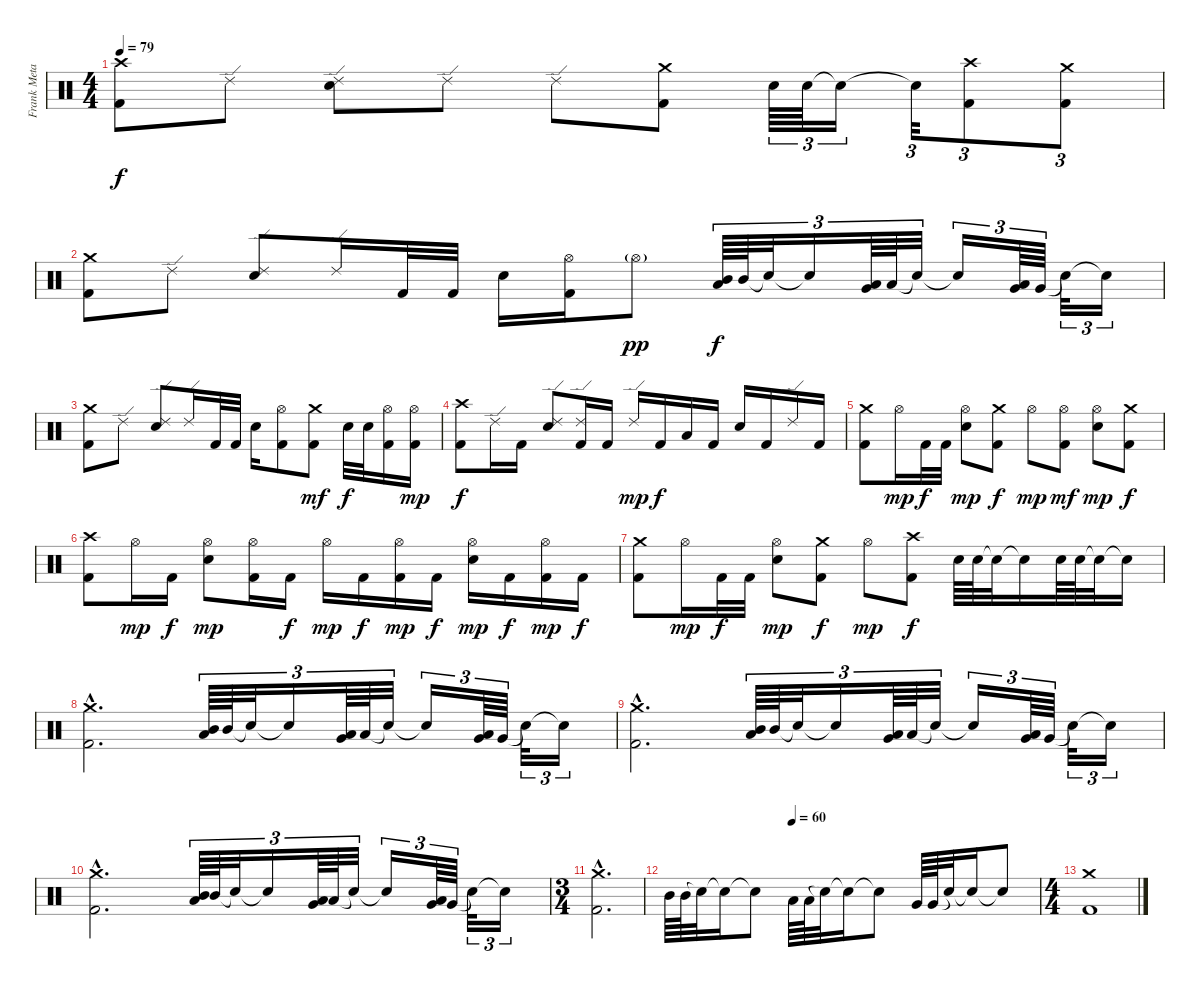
\track ("Frank Metayer" "Frank Meta") {instrument percussion}
\staff {score}
\articulation defaults
\ts (4 4)
\tempo 79
\clef neutral
\ks c
("Kick (hit) 2" "Crash high (hit)").8{dy f} "Ride (edge) 2".8 ("Ride (edge) 2" "Snare (hit) 2").8 "Ride (edge) 2".8 "Ride (edge) 2".8 ("Kick (hit) 2" "Crash medium (hit)").8 "Snare (hit) 2".64{tu (3 2)} "Snare (hit) 2".64{tu (3 2)} "Snare (hit)"{t}.16{tu (3 2)} "Snare (hit)"{t}.32{tu (3 2)} ("Kick (hit) 2" "Crash high (hit)").8{tu (3 2)} ("Kick (hit) 2" "Crash medium (hit)").8{tu (3 2)} |
("Kick (hit) 2" "Crash medium (hit)").8 "Ride (edge) 2".8 ("Ride (edge) 2" "Snare (hit) 2").8 "Ride (edge) 2".16 "Kick (hit) 2".32 "Kick (hit) 2".32 "Snare (hit) 2".16 ("Kick (hit) 2" "Hi-Hat (open)").16 "Hi-Hat (open)"{g}.8{dy pp} ("Mid Tom (hit)" "Low Tom (hit)").64{tu (3 2) dy f} "Mid Tom (hit)".64{tu (3 2)} "Snare (hit)"{t}.32{tu (3 2)} "Snare (hit)"{t}.16{tu (3 2)} ("Low Tom (hit)" "Very Low Tom (hit)").64{tu (3 2)} "Low Tom (hit)".64{tu (3 2)} "Snare (hit)"{t}.32{tu (3 2)} "Snare (hit)"{t}.16{tu (3 2)} ("Very Low Tom (hit)" "Low Floor Tom (hit)").64{tu (3 2)} "Very Low Tom (hit)".64{tu (3 2)} "Snare (hit)"{t}.32{tu (3 2)} "Snare (hit)"{t}.16{tu (3 2)} |
("Kick (hit) 2" "Crash medium (hit)").8 "Ride (edge) 2".8 ("Ride (edge) 2" "Snare (hit) 2").8 "Ride (edge) 2".16 "Kick (hit) 2".32 "Kick (hit) 2".32 "Snare (hit) 2".16 ("Kick (hit) 2" "Hi-Hat (open)").8 ("Kick (hit) 2" "Crash medium (hit)").8{dy mf} "Snare (hit) 2".32{dy f} "Snare (hit) 2".32 ("Kick (hit) 2" "Hi-Hat (open)").16 ("Kick (hit) 2" "Hi-Hat (open)").16{dy mp} |
("Kick (hit) 2" "Crash high (hit)").8{dy f} "Ride (edge) 2".16 "Kick (hit) 2".16 ("Ride (edge) 2" "Snare (hit) 2").8 ("Kick (hit) 2" "Ride (edge) 2").16 "Kick (hit) 2".16 "Ride (edge) 2".16{dy mp} "Kick (hit) 2".16{dy f} "Low Tom (hit)".16 "Kick (hit) 2".16 "Snare (hit) 2".16 "Kick (hit) 2".16 "Ride (edge) 2".16 "Kick (hit) 2".16 |
("Kick (hit) 2" "Crash medium (hit)").8 "Hi-Hat (open)".16{dy mp} "Kick (hit) 2".32{dy f} "Kick (hit) 2".32 ("Hi-Hat (open)" "Snare (hit) 2").8{dy mp} ("Kick (hit) 2" "Crash medium (hit)").8{dy f} "Hi-Hat (open)".8{dy mp} ("Kick (hit) 2" "Hi-Hat (open)").8{dy mf} ("Hi-Hat (open)" "Snare (hit) 2").8{dy mp} ("Kick (hit) 2" "Crash medium (hit)").8{dy f} |
("Kick (hit) 2" "Crash high (hit)").8 "Hi-Hat (open)".16{dy mp} "Kick (hit) 2".16{dy f} ("Hi-Hat (open)" "Snare (hit) 2").8{dy mp} ("Kick (hit) 2" "Hi-Hat (open)").16 "Kick (hit) 2".16{dy f} "Hi-Hat (open)".16{dy mp} "Kick (hit) 2".16{dy f} ("Kick (hit) 2" "Hi-Hat (open)").16{dy mp} "Kick (hit) 2".16{dy f} ("Hi-Hat (open)" "Snare (hit) 2").16{dy mp} "Kick (hit) 2".16{dy f} ("Kick (hit) 2" "Hi-Hat (open)").16{dy mp} "Kick (hit) 2".16{dy f} |
("Kick (hit) 2" "Crash medium (hit)").8 "Hi-Hat (open)".16{dy mp} "Kick (hit) 2".32{dy f} "Kick (hit) 2".32 ("Hi-Hat (open)" "Snare (hit) 2").8{dy mp} ("Kick (hit) 2" "Crash medium (hit)").8{dy f} "Hi-Hat (open)".8{dy mp} ("Kick (hit) 2" "Crash high (hit)").8{dy f} "Snare (hit) 2".64 "Snare (hit) 2".64 "Snare (hit)"{t}.32 "Snare (hit)"{t}.16 "Snare (hit) 2".64 "Snare (hit) 2".64 "Snare (hit) 2"{t}.32 "Snare (hit) 2"{t}.16 |
("Kick (hit) 2"{hac} "Crash medium (hit)"{hac}).2{d} ("Mid Tom (hit)" "Low Tom (hit)").64{tu (3 2)} "Mid Tom (hit)".64{tu (3 2)} "Snare (hit)"{t}.32{tu (3 2)} "Snare (hit)"{t}.16{tu (3 2)} ("Low Tom (hit)" "Very Low Tom (hit)").64{tu (3 2)} "Low Tom (hit)".64{tu (3 2)} "Snare (hit)"{t}.32{tu (3 2)} "Snare (hit)"{t}.16{tu (3 2)} ("Very Low Tom (hit)" "Low Floor Tom (hit)").64{tu (3 2)} "Very Low Tom (hit)".64{tu (3 2)} "Snare (hit)"{t}.32{tu (3 2)} "Snare (hit)"{t}.16{tu (3 2)} |
("Kick (hit) 2"{hac} "Crash medium (hit)"{hac}).2{d} ("Mid Tom (hit)" "Low Tom (hit)").64{tu (3 2)} "Mid Tom (hit)".64{tu (3 2)} "Snare (hit)"{t}.32{tu (3 2)} "Snare (hit)"{t}.16{tu (3 2)} ("Low Tom (hit)" "Very Low Tom (hit)").64{tu (3 2)} "Low Tom (hit)".64{tu (3 2)} "Snare (hit)"{t}.32{tu (3 2)} "Snare (hit)"{t}.16{tu (3 2)} ("Very Low Tom (hit)" "Low Floor Tom (hit)").64{tu (3 2)} "Very Low Tom (hit)".64{tu (3 2)} "Snare (hit)"{t}.32{tu (3 2)} "Snare (hit)"{t}.16{tu (3 2)} |
("Kick (hit) 2"{hac} "Crash medium (hit)"{hac}).2{d} ("Mid Tom (hit)" "Low Tom (hit)").64{tu (3 2)} "Mid Tom (hit)".64{tu (3 2)} "Snare (hit)"{t}.32{tu (3 2)} "Snare (hit)"{t}.16{tu (3 2)} ("Low Tom (hit)" "Very Low Tom (hit)").64{tu (3 2)} "Low Tom (hit)".64{tu (3 2)} "Snare (hit)"{t}.32{tu (3 2)} "Snare (hit)"{t}.16{tu (3 2)} ("Very Low Tom (hit)" "Low Floor Tom (hit)").64{tu (3 2)} "Very Low Tom (hit)".64{tu (3 2)} "Snare (hit)"{t}.32{tu (3 2)} "Snare (hit)"{t}.16{tu (3 2)} |
\ts (3 4)
("Kick (hit) 2"{hac} "Crash medium (hit)"{hac}).2{d} |
\tempo (60 0.3333333333333333)
"Mid Tom (hit)".64 "Mid Tom (hit)".64 "Snare (hit)"{t}.32 "Snare (hit)"{t}.16 "Snare (hit)"{t}.8 "Low Tom (hit)".64 "Low Tom (hit)".64 "Snare (hit)"{t}.32 "Snare (hit)"{t}.16 "Snare (hit)"{t}.8 "Very Low Tom (hit)".64 "Very Low Tom (hit)".64 "Snare (hit)"{t}.32 "Snare (hit)"{t}.16 "Snare (hit)"{t}.8 |
\ts (4 4)
("Kick (hit) 2" "Crash medium (hit)").1
